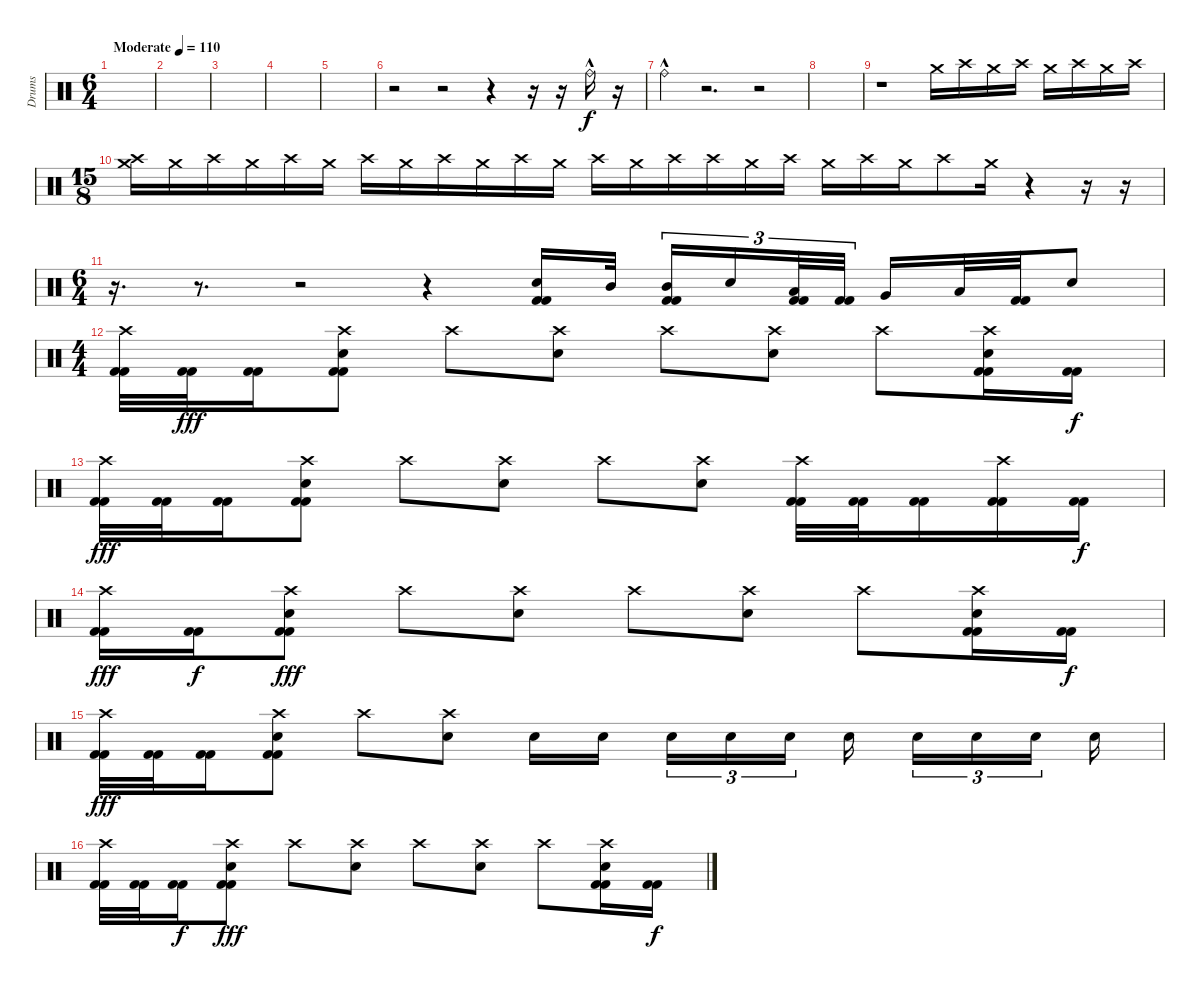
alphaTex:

\track ("Drums" "Drums") {instrument percussion}
\staff {score}
\articulation defaults
\ts (6 4)
\tempo (110 "Moderate")
\clef neutral
\ks c
|
|
|
|
|
r.2 r.2 r.4 r.16 r.16 "Ride (bell)"{hac}.16 r.16 |
"Ride (bell)"{hac}.4 r.2{d} r.2 |
|
r.1{volume 0} "Crash medium (hit)".16{volume 16} "Crash high (hit)".16 "Crash medium (hit)".16 "Crash high (hit)".16 "Crash medium (hit)".16 "Crash high (hit)".16 "Crash medium (hit)".16 "Crash high (hit)".16 |
\ts (15 8)
("Crash high (hit)" "Crash medium (hit)").16 "Crash medium (hit)".16 "Crash high (hit)".16 "Crash medium (hit)".16 "Crash high (hit)".16 "Crash medium (hit)".16 "Crash high (hit)".16 "Crash medium (hit)".16 "Crash high (hit)".16 "Crash medium (hit)".16 "Crash high (hit)".16 "Crash medium (hit)".16 "Crash high (hit)".16 "Crash medium (hit)".16 "Crash high (hit)".16 "Crash high (hit)".16 "Crash medium (hit)".16 "Crash high (hit)".16 "Crash medium (hit)".16 "Crash high (hit)".16 "Crash medium (hit)".16 "Crash high (hit)".8 "Crash medium (hit)".16 r.4 r.16 r.16 |
\ts (6 4)
r.16{d} r.8{d} r.2 r.4 ("Electric Snare (hit)" "Kick (hit) 2" "Kick (hit) 2").16 "Mid Tom (hit)".32{beam splitsecondary} ("Mid Tom (hit)" "Kick (hit) 2" "Kick (hit) 2").16{tu (3 2)} "Electric Snare (hit)".16{tu (3 2)} ("Low Tom (hit)" "Kick (hit) 2" "Kick (hit) 2").32{tu (3 2)} ("Kick (hit) 2" "Kick (hit) 2").32{tu (3 2) beam splitsecondary} "Very Low Tom (hit)".16 "Low Tom (hit)".32 ("Kick (hit) 2" "Kick (hit) 2").32 "Electric Snare (hit)".8 |
\ts (4 4)
("Crash high (hit)" "Kick (hit) 2" "Kick (hit) 2").32{dy f} ("Kick (hit) 2" "Kick (hit) 2").32{dy fff} ("Kick (hit) 2" "Kick (hit) 2").16 ("Crash high (hit)" "Electric Snare (hit)" "Kick (hit) 2" "Kick (hit) 2").8 "Crash high (hit)".8 ("Crash high (hit)" "Electric Snare (hit)").8 "Crash high (hit)".8 ("Crash high (hit)" "Electric Snare (hit)").8 "Crash high (hit)".8 ("Crash high (hit)" "Electric Snare (hit)" "Kick (hit) 2" "Kick (hit) 2").16 ("Kick (hit) 2" "Kick (hit) 2").16{dy f} |
("Crash high (hit)" "Kick (hit) 2" "Kick (hit) 2").32{dy fff} ("Kick (hit) 2" "Kick (hit) 2").32 ("Kick (hit) 2" "Kick (hit) 2").16 ("Crash high (hit)" "Electric Snare (hit)" "Kick (hit) 2" "Kick (hit) 2").8 "Crash high (hit)".8 ("Crash high (hit)" "Electric Snare (hit)").8 "Crash high (hit)".8 ("Crash high (hit)" "Electric Snare (hit)").8 ("Crash high (hit)" "Kick (hit) 2" "Kick (hit) 2").32 ("Kick (hit) 2" "Kick (hit) 2").32 ("Kick (hit) 2" "Kick (hit) 2").16 ("Crash high (hit)" "Kick (hit) 2" "Kick (hit) 2").16 ("Kick (hit) 2" "Kick (hit) 2").16{dy f} |
("Crash high (hit)" "Kick (hit) 2" "Kick (hit) 2").16{dy fff} ("Kick (hit) 2" "Kick (hit) 2").16{dy f} ("Crash high (hit)" "Electric Snare (hit)" "Kick (hit) 2" "Kick (hit) 2").8{dy fff} "Crash high (hit)".8 ("Crash high (hit)" "Electric Snare (hit)").8 "Crash high (hit)".8 ("Crash high (hit)" "Electric Snare (hit)").8 "Crash high (hit)".8 ("Crash high (hit)" "Electric Snare (hit)" "Kick (hit) 2" "Kick (hit) 2").16 ("Kick (hit) 2" "Kick (hit) 2").16{dy f} |
("Crash high (hit)" "Kick (hit) 2" "Kick (hit) 2").32{dy fff} ("Kick (hit) 2" "Kick (hit) 2").32 ("Kick (hit) 2" "Kick (hit) 2").16 ("Crash high (hit)" "Electric Snare (hit)" "Kick (hit) 2" "Kick (hit) 2").8 "Crash high (hit)".8 ("Crash high (hit)" "Electric Snare (hit)").8 "Electric Snare (hit)".16 "Electric Snare (hit)".16{beam splitsecondary} "Electric Snare (hit)".16{tu (3 2)} "Electric Snare (hit)".16{tu (3 2)} "Electric Snare (hit)".16{tu (3 2)} "Electric Snare (hit)".16{beam splitsecondary} "Electric Snare (hit)".16{tu (3 2)} "Electric Snare (hit)".16{tu (3 2)} "Electric Snare (hit)".16{tu (3 2) beam splitsecondary} "Electric Snare (hit)".16 |
("Crash high (hit)" "Kick (hit) 2" "Kick (hit) 2").32 ("Kick (hit) 2" "Kick (hit) 2").32 ("Kick (hit) 2" "Kick (hit) 2").16{dy f} ("Crash high (hit)" "Electric Snare (hit)" "Kick (hit) 2" "Kick (hit) 2").8{dy fff} "Crash high (hit)".8 ("Crash high (hit)" "Electric Snare (hit)").8 "Crash high (hit)".8 ("Crash high (hit)" "Electric Snare (hit)").8 "Crash high (hit)".8 ("Crash high (hit)" "Electric Snare (hit)" "Kick (hit) 2" "Kick (hit) 2").16 ("Kick (hit) 2" "Kick (hit) 2").16{dy f}
